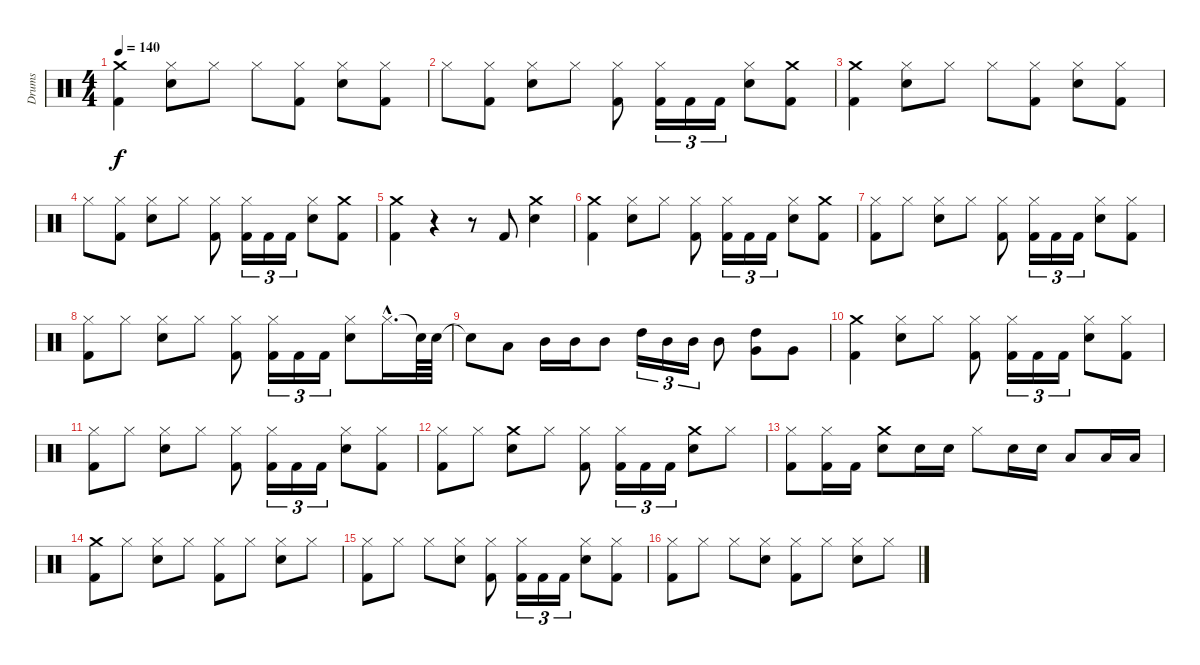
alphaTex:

\track ("Drums" "Drums") {instrument percussion}
\staff {score}
\articulation defaults
\ts (4 4)
\tempo 140
\clef neutral
\ks c
("Kick (hit) 2" "Crash medium (hit)").4{dy f} ("Snare (hit) 2" "Hi-Hat (closed)").8 "Hi-Hat (closed)".8 "Hi-Hat (closed)".8 ("Kick (hit) 2" "Hi-Hat (closed)").8 ("Snare (hit) 2" "Hi-Hat (closed)").8 ("Kick (hit) 2" "Hi-Hat (closed)").8 |
"Hi-Hat (closed)".8 ("Kick (hit) 2" "Hi-Hat (closed)").8 ("Snare (hit) 2" "Hi-Hat (closed)").8 "Hi-Hat (closed)".8 ("Kick (hit) 2" "Hi-Hat (closed)").8 ("Kick (hit) 2" "Hi-Hat (closed)").16{tu (3 2)} "Kick (hit) 2".16{tu (3 2)} "Kick (hit) 2".16{tu (3 2)} ("Snare (hit) 2" "Hi-Hat (closed)").8 ("Kick (hit) 2" "Crash medium (hit)").8 |
("Kick (hit) 2" "Crash medium (hit)").4 ("Snare (hit) 2" "Hi-Hat (closed)").8 "Hi-Hat (closed)".8 "Hi-Hat (closed)".8 ("Kick (hit) 2" "Hi-Hat (closed)").8 ("Snare (hit) 2" "Hi-Hat (closed)").8 ("Kick (hit) 2" "Hi-Hat (closed)").8 |
"Hi-Hat (closed)".8 ("Kick (hit) 2" "Hi-Hat (closed)").8 ("Snare (hit) 2" "Hi-Hat (closed)").8 "Hi-Hat (closed)".8 ("Kick (hit) 2" "Hi-Hat (closed)").8 ("Kick (hit) 2" "Hi-Hat (closed)").16{tu (3 2)} "Kick (hit) 2".16{tu (3 2)} "Kick (hit) 2".16{tu (3 2)} ("Snare (hit) 2" "Hi-Hat (closed)").8 ("Kick (hit) 2" "Crash medium (hit)").8 |
("Kick (hit) 2" "Crash medium (hit)").4 r.4 r.8 "Kick (hit) 2".8 ("Crash medium (hit)" "Snare (hit) 2").4 |
("Crash medium (hit)" "Kick (hit) 2").4 ("Snare (hit) 2" "Hi-Hat (closed)").8 "Hi-Hat (closed)".8 ("Kick (hit) 2" "Hi-Hat (closed)").8 ("Kick (hit) 2" "Hi-Hat (closed)").16{tu (3 2)} "Kick (hit) 2".16{tu (3 2)} "Kick (hit) 2".16{tu (3 2)} ("Snare (hit) 2" "Hi-Hat (closed)").8 ("Kick (hit) 2" "Crash medium (hit)").8 |
("Kick (hit) 2" "Hi-Hat (closed)").8 "Hi-Hat (closed)".8 ("Snare (hit) 2" "Hi-Hat (closed)").8 "Hi-Hat (closed)".8 ("Kick (hit) 2" "Hi-Hat (closed)").8 ("Kick (hit) 2" "Hi-Hat (closed)").16{tu (3 2)} "Kick (hit) 2".16{tu (3 2)} "Kick (hit) 2".16{tu (3 2)} ("Snare (hit) 2" "Hi-Hat (closed)").8 ("Hi-Hat (closed)" "Kick (hit) 2").8 |
("Kick (hit) 2" "Hi-Hat (closed)").8 "Hi-Hat (closed)".8 ("Snare (hit) 2" "Hi-Hat (closed)").8 "Hi-Hat (closed)".8 ("Kick (hit) 2" "Hi-Hat (closed)").8 ("Kick (hit) 2" "Hi-Hat (closed)").16{tu (3 2)} "Kick (hit) 2".16{tu (3 2)} "Kick (hit) 2".16{tu (3 2)} ("Snare (hit) 2" "Hi-Hat (closed)").8 "Hi-Hat (closed)"{hac}.16{d} "Snare (hit)"{t}.64 "Snare (hit) 2".64 |
"Snare (hit)"{t}.8 "Low Tom (hit)".8 "Mid Tom (hit)".16 "Mid Tom (hit)".16 "Mid Tom (hit)".8 "High Tom (hit)".16{tu (3 2)} "Mid Tom (hit)".16{tu (3 2)} "Mid Tom (hit)".16{tu (3 2)} "Mid Tom (hit)".8 ("Very Low Tom (hit)" "High Tom (hit)").8 "Very Low Tom (hit)".8 |
("Crash medium (hit)" "Kick (hit) 2").4 ("Snare (hit) 2" "Hi-Hat (closed)").8 "Hi-Hat (closed)".8 ("Kick (hit) 2" "Hi-Hat (closed)").8 ("Kick (hit) 2" "Hi-Hat (closed)").16{tu (3 2)} "Kick (hit) 2".16{tu (3 2)} "Kick (hit) 2".16{tu (3 2)} ("Snare (hit) 2" "Hi-Hat (closed)").8 ("Hi-Hat (closed)" "Kick (hit) 2").8 |
("Kick (hit) 2" "Hi-Hat (closed)").8 "Hi-Hat (closed)".8 ("Snare (hit) 2" "Hi-Hat (closed)").8 "Hi-Hat (closed)".8 ("Kick (hit) 2" "Hi-Hat (closed)").8 ("Kick (hit) 2" "Hi-Hat (closed)").16{tu (3 2)} "Kick (hit) 2".16{tu (3 2)} "Kick (hit) 2".16{tu (3 2)} ("Snare (hit) 2" "Hi-Hat (closed)").8 ("Hi-Hat (closed)" "Kick (hit) 2").8 |
("Kick (hit) 2" "Hi-Hat (closed)").8 "Hi-Hat (closed)".8 ("Crash medium (hit)" "Snare (hit) 2").8 "Hi-Hat (closed)".8 ("Kick (hit) 2" "Hi-Hat (closed)").8 ("Kick (hit) 2" "Hi-Hat (closed)").16{tu (3 2)} "Kick (hit) 2".16{tu (3 2)} "Kick (hit) 2".16{tu (3 2)} ("Crash medium (hit)" "Snare (hit) 2").8 "Hi-Hat (closed)".8 |
("Kick (hit) 2" "Hi-Hat (closed)").8 ("Kick (hit) 2" "Hi-Hat (closed)").16 "Kick (hit) 2".16 ("Snare (hit) 2" "Crash medium (hit)").8 "Snare (hit) 2".16 "Snare (hit) 2".16 "Hi-Hat (closed)".8 "Snare (hit) 2".16 "Snare (hit) 2".16 "Low Tom (hit)".8 "Low Tom (hit)".16 "Low Tom (hit)".16 |
("Kick (hit) 2" "Crash medium (hit)").8 "Hi-Hat (closed)".8 ("Snare (hit) 2" "Hi-Hat (closed)").8 "Hi-Hat (closed)".8 ("Kick (hit) 2" "Hi-Hat (closed)").8 "Hi-Hat (closed)".8 ("Snare (hit) 2" "Hi-Hat (closed)").8 "Hi-Hat (closed)".8 |
("Kick (hit) 2" "Hi-Hat (closed)").8 "Hi-Hat (closed)".8 "Hi-Hat (closed)".8 ("Snare (hit) 2" "Hi-Hat (closed)").8 ("Kick (hit) 2" "Hi-Hat (closed)").8 ("Kick (hit) 2" "Hi-Hat (closed)").16{tu (3 2)} "Kick (hit) 2".16{tu (3 2)} "Kick (hit) 2".16{tu (3 2)} ("Snare (hit) 2" "Hi-Hat (closed)").8 ("Kick (hit) 2" "Hi-Hat (closed)").8 |
("Hi-Hat (closed)" "Kick (hit) 2").8 "Hi-Hat (closed)".8 "Hi-Hat (closed)".8 ("Snare (hit) 2" "Hi-Hat (closed)").8 ("Hi-Hat (closed)" "Kick (hit) 2").8 "Hi-Hat (closed)".8 ("Snare (hit) 2" "Hi-Hat (closed)").8 "Hi-Hat (closed)".8
